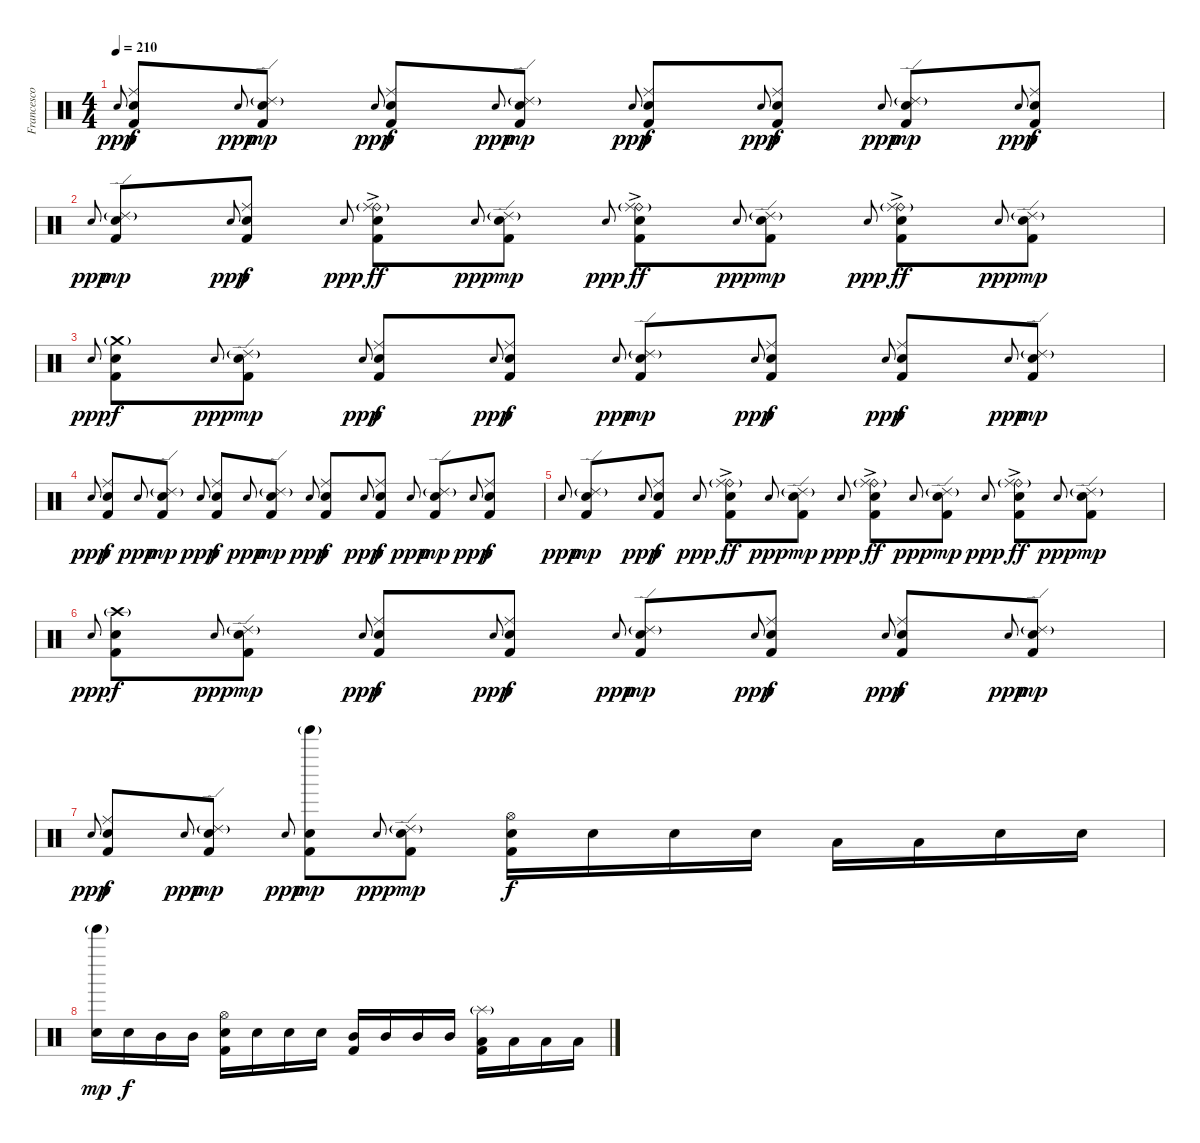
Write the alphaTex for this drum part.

\track ("Francesco Ferrini" "Francesco ") {instrument percussion}
\staff {score}
\articulation defaults
\ts (4 4)
\tempo 210
\clef neutral
\ks c "Electric Snare (hit)"{h}.8{gr onbeat dy ppp}
("Ride (middle)" "Electric Snare (hit)" "Kick (hit) 2").8{dy f} "Electric Snare (hit)"{h}.8{gr onbeat dy ppp} ("Ride (edge) 2"{g} "Electric Snare (hit)" "Kick (hit) 2").8{dy mp} "Electric Snare (hit)"{h}.8{gr onbeat dy ppp} ("Ride (middle)" "Electric Snare (hit)" "Kick (hit) 2").8{dy f} "Electric Snare (hit)"{h}.8{gr onbeat dy ppp} ("Ride (edge) 2"{g} "Electric Snare (hit)" "Kick (hit) 2").8{dy mp} "Electric Snare (hit)"{h}.8{gr onbeat dy ppp} ("Ride (middle)" "Electric Snare (hit)" "Kick (hit) 2").8{dy f} "Electric Snare (hit)"{h}.8{gr onbeat dy ppp} ("Ride (middle)" "Electric Snare (hit)" "Kick (hit) 2").8{dy f} "Electric Snare (hit)"{h}.8{gr onbeat dy ppp} ("Ride (edge) 2"{g} "Electric Snare (hit)" "Kick (hit) 2").8{dy mp} "Electric Snare (hit)"{h}.8{gr onbeat dy ppp} ("Ride (middle)" "Electric Snare (hit)" "Kick (hit) 2").8{dy f} |
"Electric Snare (hit)"{h}.8{gr onbeat dy ppp} ("Ride (edge) 2"{g} "Electric Snare (hit)" "Kick (hit) 2").8{dy mp} "Electric Snare (hit)"{h}.8{gr onbeat dy ppp} ("Ride (middle)" "Electric Snare (hit)" "Kick (hit) 2").8{dy f} "Electric Snare (hit)"{h}.8{gr onbeat dy ppp} ("Ride (bell)"{g} "Ride (middle)"{ac} "Electric Snare (hit)" "Kick (hit) 2").8{dy ff} "Electric Snare (hit)"{h}.8{gr onbeat dy ppp} ("Ride (edge) 2"{g} "Electric Snare (hit)" "Kick (hit) 2").8{dy mp} "Electric Snare (hit)"{h}.8{gr onbeat dy ppp} ("Ride (bell)"{g} "Ride (middle)"{ac} "Electric Snare (hit)" "Kick (hit) 2").8{dy ff} "Electric Snare (hit)"{h}.8{gr onbeat dy ppp} ("Ride (edge) 2"{g} "Electric Snare (hit)" "Kick (hit) 2").8{dy mp} "Electric Snare (hit)"{h}.8{gr onbeat dy ppp} ("Ride (bell)"{g} "Ride (middle)"{ac} "Electric Snare (hit)" "Kick (hit) 2").8{dy ff} "Electric Snare (hit)"{h}.8{gr onbeat dy ppp} ("Ride (edge) 2"{g} "Electric Snare (hit)" "Kick (hit) 2").8{dy mp} |
"Electric Snare (hit)"{h}.8{gr onbeat dy ppp} ("Crash medium (hit)"{g} "Electric Snare (hit)" "Kick (hit) 2").8{dy f} "Electric Snare (hit)"{h}.8{gr onbeat dy ppp} ("Ride (edge) 2"{g} "Electric Snare (hit)" "Kick (hit) 2").8{dy mp} "Electric Snare (hit)"{h}.8{gr onbeat dy ppp} ("Ride (middle)" "Electric Snare (hit)" "Kick (hit) 2").8{dy f} "Electric Snare (hit)"{h}.8{gr onbeat dy ppp} ("Ride (middle)" "Electric Snare (hit)" "Kick (hit) 2").8{dy f} "Electric Snare (hit)"{h}.8{gr onbeat dy ppp} ("Ride (edge) 2"{g} "Electric Snare (hit)" "Kick (hit) 2").8{dy mp} "Electric Snare (hit)"{h}.8{gr onbeat dy ppp} ("Ride (middle)" "Electric Snare (hit)" "Kick (hit) 2").8{dy f} "Electric Snare (hit)"{h}.8{gr onbeat dy ppp} ("Ride (middle)" "Electric Snare (hit)" "Kick (hit) 2").8{dy f} "Electric Snare (hit)"{h}.8{gr onbeat dy ppp} ("Ride (edge) 2"{g} "Electric Snare (hit)" "Kick (hit) 2").8{dy mp} |
"Electric Snare (hit)"{h}.8{gr onbeat dy ppp} ("Ride (middle)" "Electric Snare (hit)" "Kick (hit) 2").8{dy f} "Electric Snare (hit)"{h}.8{gr onbeat dy ppp} ("Ride (edge) 2"{g} "Electric Snare (hit)" "Kick (hit) 2").8{dy mp} "Electric Snare (hit)"{h}.8{gr onbeat dy ppp} ("Ride (middle)" "Electric Snare (hit)" "Kick (hit) 2").8{dy f} "Electric Snare (hit)"{h}.8{gr onbeat dy ppp} ("Ride (edge) 2"{g} "Electric Snare (hit)" "Kick (hit) 2").8{dy mp} "Electric Snare (hit)"{h}.8{gr onbeat dy ppp} ("Ride (middle)" "Electric Snare (hit)" "Kick (hit) 2").8{dy f} "Electric Snare (hit)"{h}.8{gr onbeat dy ppp} ("Ride (middle)" "Electric Snare (hit)" "Kick (hit) 2").8{dy f} "Electric Snare (hit)"{h}.8{gr onbeat dy ppp} ("Ride (edge) 2"{g} "Electric Snare (hit)" "Kick (hit) 2").8{dy mp} "Electric Snare (hit)"{h}.8{gr onbeat dy ppp} ("Ride (middle)" "Electric Snare (hit)" "Kick (hit) 2").8{dy f} |
"Electric Snare (hit)"{h}.8{gr onbeat dy ppp} ("Ride (edge) 2"{g} "Electric Snare (hit)" "Kick (hit) 2").8{dy mp} "Electric Snare (hit)"{h}.8{gr onbeat dy ppp} ("Ride (middle)" "Electric Snare (hit)" "Kick (hit) 2").8{dy f} "Electric Snare (hit)"{h}.8{gr onbeat dy ppp} ("Ride (bell)"{g} "Ride (middle)"{ac} "Electric Snare (hit)" "Kick (hit) 2").8{dy ff} "Electric Snare (hit)"{h}.8{gr onbeat dy ppp} ("Ride (edge) 2"{g} "Electric Snare (hit)" "Kick (hit) 2").8{dy mp} "Electric Snare (hit)"{h}.8{gr onbeat dy ppp} ("Ride (bell)"{g} "Ride (middle)"{ac} "Electric Snare (hit)" "Kick (hit) 2").8{dy ff} "Electric Snare (hit)"{h}.8{gr onbeat dy ppp} ("Ride (edge) 2"{g} "Electric Snare (hit)" "Kick (hit) 2").8{dy mp} "Electric Snare (hit)"{h}.8{gr onbeat dy ppp} ("Ride (bell)"{g} "Ride (middle)"{ac} "Electric Snare (hit)" "Kick (hit) 2").8{dy ff} "Electric Snare (hit)"{h}.8{gr onbeat dy ppp} ("Ride (edge) 2"{g} "Electric Snare (hit)" "Kick (hit) 2").8{dy mp} |
"Electric Snare (hit)"{h}.8{gr onbeat dy ppp} ("Crash high (hit)"{g} "Electric Snare (hit)" "Kick (hit) 2").8{dy f} "Electric Snare (hit)"{h}.8{gr onbeat dy ppp} ("Ride (edge) 2"{g} "Electric Snare (hit)" "Kick (hit) 2").8{dy mp} "Electric Snare (hit)"{h}.8{gr onbeat dy ppp} ("Ride (middle)" "Electric Snare (hit)" "Kick (hit) 2").8{dy f} "Electric Snare (hit)"{h}.8{gr onbeat dy ppp} ("Ride (middle)" "Electric Snare (hit)" "Kick (hit) 2").8{dy f} "Electric Snare (hit)"{h}.8{gr onbeat dy ppp} ("Ride (edge) 2"{g} "Electric Snare (hit)" "Kick (hit) 2").8{dy mp} "Electric Snare (hit)"{h}.8{gr onbeat dy ppp} ("Ride (middle)" "Electric Snare (hit)" "Kick (hit) 2").8{dy f} "Electric Snare (hit)"{h}.8{gr onbeat dy ppp} ("Ride (middle)" "Electric Snare (hit)" "Kick (hit) 2").8{dy f} "Electric Snare (hit)"{h}.8{gr onbeat dy ppp} ("Ride (edge) 2"{g} "Electric Snare (hit)" "Kick (hit) 2").8{dy mp} |
"Electric Snare (hit)"{h}.8{gr onbeat dy ppp} ("Ride (middle)" "Electric Snare (hit)" "Kick (hit) 2").8{dy f} "Electric Snare (hit)"{h}.8{gr onbeat dy ppp} ("Ride (edge) 2"{g} "Electric Snare (hit)" "Kick (hit) 2").8{dy mp} "Electric Snare (hit)"{h}.8{gr onbeat dy ppp} ("Tinkle Bell (hit)"{g} "Electric Snare (hit)" "Kick (hit) 2").8{dy mp} "Electric Snare (hit)"{h}.8{gr onbeat dy ppp} ("Ride (edge) 2"{g} "Electric Snare (hit)" "Kick (hit) 2").8{dy mp} ("Hi-Hat (open)" "Electric Snare (hit)" "Kick (hit) 2").16{dy f} "Electric Snare (hit)".16 "Electric Snare (hit)".16 "Electric Snare (hit)".16 "Low Tom (hit)".16 "Low Tom (hit)".16 "Electric Snare (hit)".16 "Electric Snare (hit)".16 |
("Tinkle Bell (hit)"{g} "Electric Snare (hit)").16{dy mp} "Electric Snare (hit)".16{dy f} "Mid Tom (hit)".16 "Mid Tom (hit)".16 ("Hi-Hat (open)" "Electric Snare (hit)" "Kick (hit) 2").16 "Electric Snare (hit)".16 "Electric Snare (hit)".16 "Electric Snare (hit)".16 ("Mid Tom (hit)" "Kick (hit) 2").16 "Mid Tom (hit)".16 "Mid Tom (hit)".16 "Mid Tom (hit)".16 ("Splash (hit)"{g} "Low Tom (hit)" "Kick (hit) 2").16 "Low Tom (hit)".16 "Low Tom (hit)".16 "Low Tom (hit)".16
